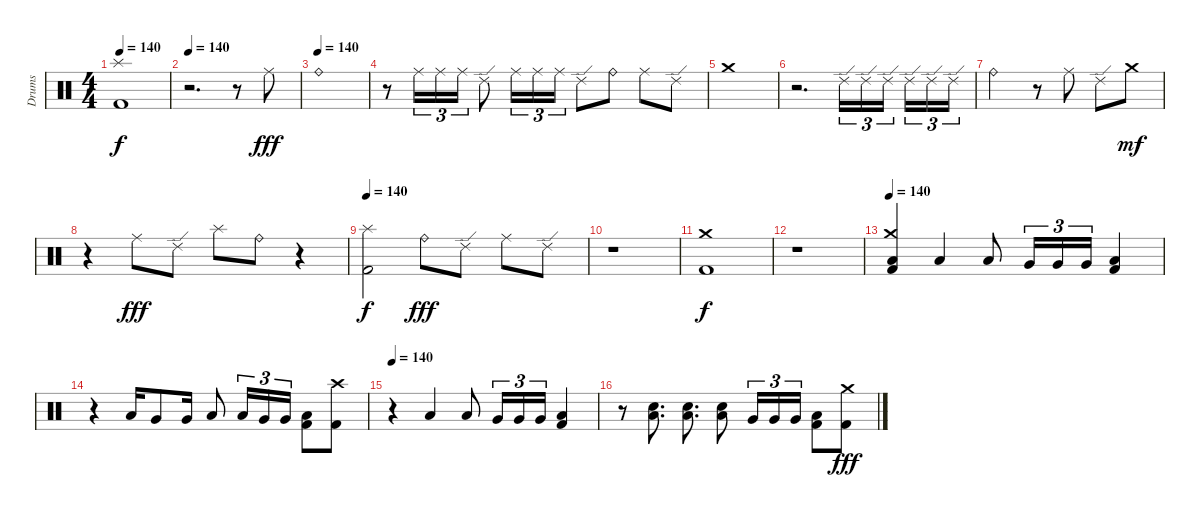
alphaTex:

\track ("Drums" "Drums") {instrument percussion}
\staff {score}
\articulation defaults
\ts (4 4)
\tempo 140
\clef neutral
\ks c
("Splash (hit)" "Kick (hit) 2").1{dy f} |
\tempo 140
r.2{d} r.8 "Ride (middle)".8{dy fff} |
\tempo (140)
"Ride (bell)".1 |
r.8 "Ride (middle)".16{tu (3 2)} "Ride (middle)".16{tu (3 2)} "Ride (middle)".16{tu (3 2)} "Ride (edge) 2".8 "Ride (middle)".16{tu (3 2)} "Ride (middle)".16{tu (3 2)} "Ride (middle)".16{tu (3 2)} "Ride (edge) 2".8 "Ride (bell)".8 "Ride (middle)".8 "Ride (edge) 2".8 |
"Crash medium (hit)".1 |
r.2{d} "Ride (edge) 2".16{tu (3 2)} "Ride (edge) 2".16{tu (3 2)} "Ride (edge) 2".16{tu (3 2)} "Ride (edge) 2".16{tu (3 2)} "Ride (edge) 2".16{tu (3 2)} "Ride (edge) 2".16{tu (3 2)} |
"Ride (bell)".2 r.8 "Ride (middle)".8 "Ride (edge) 2".8 "Crash medium (hit)".8{dy mf} |
r.4 "Ride (middle)".8{dy fff} "Ride (edge) 2".8 "Splash (hit)".8 "Ride (bell)".8 r.4 |
\tempo 140
("Splash (hit)" "Kick (hit) 2").2{dy f} "Ride (bell)".8{dy fff} "Ride (edge) 2".8 "Ride (middle)".8 "Ride (edge) 2".8 |
r.1 |
("Crash medium (hit)" "Kick (hit) 2").1{dy f} |
r.1 |
\tempo 140
("Crash medium (hit)" "Low Floor Tom (hit)" "Kick (hit) 2").4 "Low Floor Tom (hit)".4 "Low Floor Tom (hit)".8 "Very Low Tom (hit)".16{tu (3 2)} "Very Low Tom (hit)".16{tu (3 2)} "Very Low Tom (hit)".16{tu (3 2)} ("Low Floor Tom (hit)" "Kick (hit) 2").4 |
r.4 "Low Tom (hit)".16 "Very Low Tom (hit)".8 "Very Low Tom (hit)".16 "Low Floor Tom (hit)".8 "Low Tom (hit)".16{tu (3 2)} "Very Low Tom (hit)".16{tu (3 2)} "Very Low Tom (hit)".16{tu (3 2)} ("Low Floor Tom (hit)" "Kick (hit) 2").8 ("Crash high (hit)" "Kick (hit) 2").8 |
\tempo 140
r.4 "Low Floor Tom (hit)".4 "Low Floor Tom (hit)".8 "Very Low Tom (hit)".16{tu (3 2)} "Very Low Tom (hit)".16{tu (3 2)} "Very Low Tom (hit)".16{tu (3 2)} ("Low Floor Tom (hit)" "Kick (hit) 2").4 |
r.8 ("Low Floor Tom (hit)" "Electric Snare (hit)").8{d} ("Low Floor Tom (hit)" "Electric Snare (hit)").8{d} ("Low Floor Tom (hit)" "Electric Snare (hit)").8 "Very Low Tom (hit)".16{tu (3 2)} "Very Low Tom (hit)".16{tu (3 2)} "Very Low Tom (hit)".16{tu (3 2)} ("Low Floor Tom (hit)" "Kick (hit) 2").8 ("Crash medium (hit)" "Kick (hit) 2").8{dy fff}
